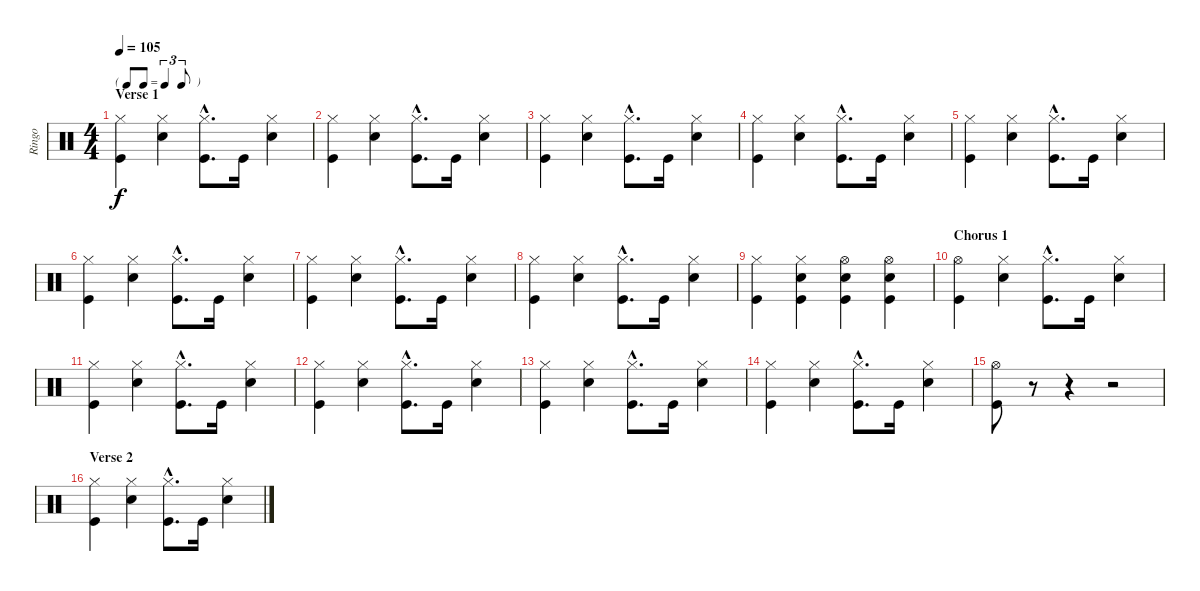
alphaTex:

\track ("Ringo" "Ringo") {instrument percussion}
\staff {score}
\articulation defaults
\ts (4 4)
\tf triplet8th
\section ("" "Verse 1")
\tempo 105
\clef neutral
\ks c
("Hi-Hat (closed)" "Kick (hit)").4{dy f} ("Hi-Hat (closed)" "Snare (hit) 2").4 ("Hi-Hat (closed)"{hac} "Kick (hit)"{hac}).8{d} "Kick (hit)".16 ("Hi-Hat (closed)" "Snare (hit) 2").4 |
("Hi-Hat (closed)" "Kick (hit)").4 ("Hi-Hat (closed)" "Snare (hit) 2").4 ("Hi-Hat (closed)"{hac} "Kick (hit)"{hac}).8{d} "Kick (hit)".16 ("Hi-Hat (closed)" "Snare (hit) 2").4 |
("Hi-Hat (closed)" "Kick (hit)").4 ("Hi-Hat (closed)" "Snare (hit) 2").4 ("Hi-Hat (closed)"{hac} "Kick (hit)"{hac}).8{d} "Kick (hit)".16 ("Hi-Hat (closed)" "Snare (hit) 2").4 |
("Hi-Hat (closed)" "Kick (hit)").4 ("Hi-Hat (closed)" "Snare (hit) 2").4 ("Hi-Hat (closed)"{hac} "Kick (hit)"{hac}).8{d} "Kick (hit)".16 ("Hi-Hat (closed)" "Snare (hit) 2").4 |
("Hi-Hat (closed)" "Kick (hit)").4 ("Hi-Hat (closed)" "Snare (hit) 2").4 ("Hi-Hat (closed)"{hac} "Kick (hit)"{hac}).8{d} "Kick (hit)".16 ("Hi-Hat (closed)" "Snare (hit) 2").4 |
("Hi-Hat (closed)" "Kick (hit)").4 ("Hi-Hat (closed)" "Snare (hit) 2").4 ("Hi-Hat (closed)"{hac} "Kick (hit)"{hac}).8{d} "Kick (hit)".16 ("Hi-Hat (closed)" "Snare (hit) 2").4 |
("Hi-Hat (closed)" "Kick (hit)").4 ("Hi-Hat (closed)" "Snare (hit) 2").4 ("Hi-Hat (closed)"{hac} "Kick (hit)"{hac}).8{d} "Kick (hit)".16 ("Hi-Hat (closed)" "Snare (hit) 2").4 |
("Hi-Hat (closed)" "Kick (hit)").4 ("Hi-Hat (closed)" "Snare (hit) 2").4 ("Hi-Hat (closed)"{hac} "Kick (hit)"{hac}).8{d} "Kick (hit)".16 ("Hi-Hat (closed)" "Snare (hit) 2").4 |
("Hi-Hat (closed)" "Kick (hit)").4 ("Hi-Hat (closed)" "Snare (hit) 2" "Kick (hit)").4 ("Hi-Hat (open)" "Snare (hit) 2" "Kick (hit)").4 ("Hi-Hat (open)" "Snare (hit) 2" "Kick (hit)").4 |
\section ("" "Chorus 1")
("Hi-Hat (open)" "Kick (hit)").4 ("Hi-Hat (closed)" "Snare (hit) 2").4 ("Hi-Hat (closed)"{hac} "Kick (hit)"{hac}).8{d} "Kick (hit)".16 ("Hi-Hat (closed)" "Snare (hit) 2").4 |
("Hi-Hat (closed)" "Kick (hit)").4 ("Hi-Hat (closed)" "Snare (hit) 2").4 ("Hi-Hat (closed)"{hac} "Kick (hit)"{hac}).8{d} "Kick (hit)".16 ("Hi-Hat (closed)" "Snare (hit) 2").4 |
("Hi-Hat (closed)" "Kick (hit)").4 ("Hi-Hat (closed)" "Snare (hit) 2").4 ("Hi-Hat (closed)"{hac} "Kick (hit)"{hac}).8{d} "Kick (hit)".16 ("Hi-Hat (closed)" "Snare (hit) 2").4 |
("Hi-Hat (closed)" "Kick (hit)").4 ("Hi-Hat (closed)" "Snare (hit) 2").4 ("Hi-Hat (closed)"{hac} "Kick (hit)"{hac}).8{d} "Kick (hit)".16 ("Hi-Hat (closed)" "Snare (hit) 2").4 |
("Hi-Hat (closed)" "Kick (hit)").4 ("Hi-Hat (closed)" "Snare (hit) 2").4 ("Hi-Hat (closed)"{hac} "Kick (hit)"{hac}).8{d} "Kick (hit)".16 ("Hi-Hat (closed)" "Snare (hit) 2").4 |
("Hi-Hat (open)" "Kick (hit)").8 r.8 r.4 r.2 |
\section ("" "Verse 2")
("Hi-Hat (closed)" "Kick (hit)").4 ("Hi-Hat (closed)" "Snare (hit) 2").4 ("Hi-Hat (closed)"{hac} "Kick (hit)"{hac}).8{d} "Kick (hit)".16 ("Hi-Hat (closed)" "Snare (hit) 2").4
